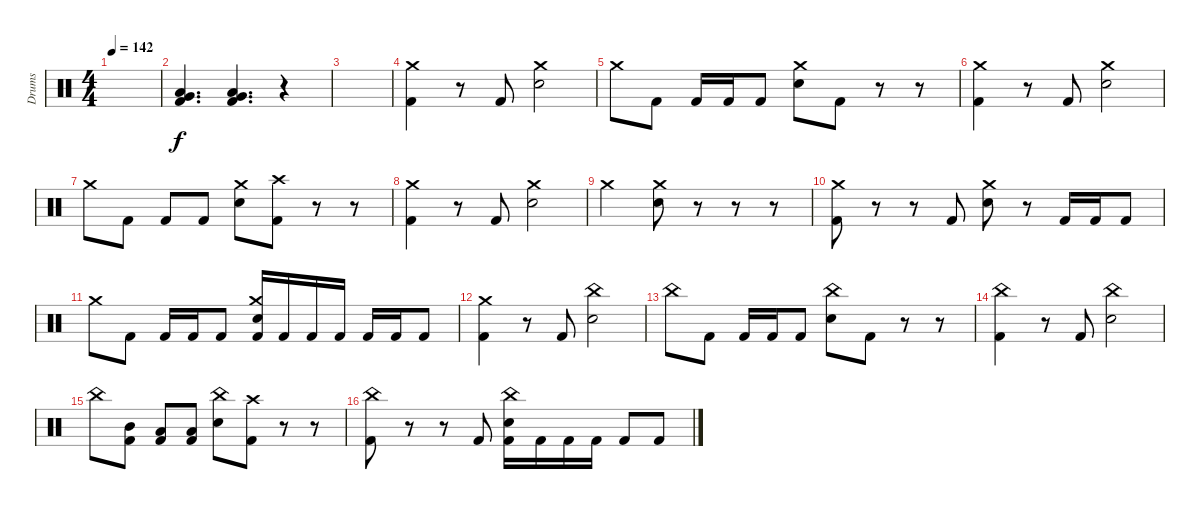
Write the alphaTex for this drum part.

\track ("Drums" "Drums") {instrument percussion}
\staff {score}
\articulation defaults
\ts (4 4)
\tempo 142
\clef neutral
\ks c
|
("Very Low Tom (hit)" "Low Floor Tom (hit)" "Kick (hit) 2").4{d} ("Very Low Tom (hit)" "Low Floor Tom (hit)" "Kick (hit) 2").4{d} r.4 |
|
("Crash medium (hit)" "Kick (hit) 2").4 r.8 "Kick (hit) 2".8 ("Crash medium (hit)" "Electric Snare (hit)").2 |
"Crash medium (hit)".8 "Kick (hit) 2".8 "Kick (hit) 2".16 "Kick (hit) 2".16 "Kick (hit) 2".8 ("Crash medium (hit)" "Electric Snare (hit)").8 "Kick (hit) 2".8 r.8 r.8 |
("Crash medium (hit)" "Kick (hit) 2").4 r.8 "Kick (hit) 2".8 ("Crash medium (hit)" "Electric Snare (hit)").2 |
"Crash medium (hit)".8 "Kick (hit) 2".8 "Kick (hit) 2".8 "Kick (hit) 2".8 ("Crash medium (hit)" "Electric Snare (hit)").8 ("Crash high (hit)" "Kick (hit) 2").8 r.8 r.8 |
("Crash medium (hit)" "Kick (hit) 2").4 r.8 "Kick (hit) 2".8 ("Crash medium (hit)" "Electric Snare (hit)").2 |
"Crash medium (hit)".2 ("Crash medium (hit)" "Electric Snare (hit)").8 r.8 r.8 r.8 |
("Crash medium (hit)" "Kick (hit) 2").8 r.8 r.8 "Kick (hit) 2".8 ("Crash medium (hit)" "Electric Snare (hit)").8 r.8 "Kick (hit) 2".16 "Kick (hit) 2".16 "Kick (hit) 2".8 |
"Crash medium (hit)".8 "Kick (hit) 2".8 "Kick (hit) 2".16 "Kick (hit) 2".16 "Kick (hit) 2".8 ("Crash medium (hit)" "Electric Snare (hit)" "Kick (hit) 2").16 "Kick (hit) 2".16 "Kick (hit) 2".16 "Kick (hit) 2".16 "Kick (hit) 2".16 "Kick (hit) 2".16 "Kick (hit) 2".8 |
("Crash medium (hit)" "Kick (hit) 2").4 r.8 "Kick (hit) 2".8 ("China (hit)" "Electric Snare (hit)").2 |
"China (hit)".8 "Kick (hit) 2".8 "Kick (hit) 2".16 "Kick (hit) 2".16 "Kick (hit) 2".8 ("China (hit)" "Electric Snare (hit)").8 "Kick (hit) 2".8 r.8 r.8 |
("China (hit)" "Kick (hit) 2").4 r.8 "Kick (hit) 2".8 ("China (hit)" "Electric Snare (hit)").2 |
"China (hit)".8 ("Mid Tom (hit)" "Kick (hit) 2").8 ("Low Tom (hit)" "Kick (hit) 2").8 ("Low Floor Tom (hit)" "Kick (hit) 2").8 ("China (hit)" "Electric Snare (hit)").8 ("Crash high (hit)" "Kick (hit) 2").8 r.8 r.8 |
("China (hit)" "Kick (hit) 2").8 r.8 r.8 "Kick (hit) 2".8 ("China (hit)" "Electric Snare (hit)" "Kick (hit) 2").16 "Kick (hit) 2".16 "Kick (hit) 2".16 "Kick (hit) 2".16 "Kick (hit) 2".8 "Kick (hit) 2".8
